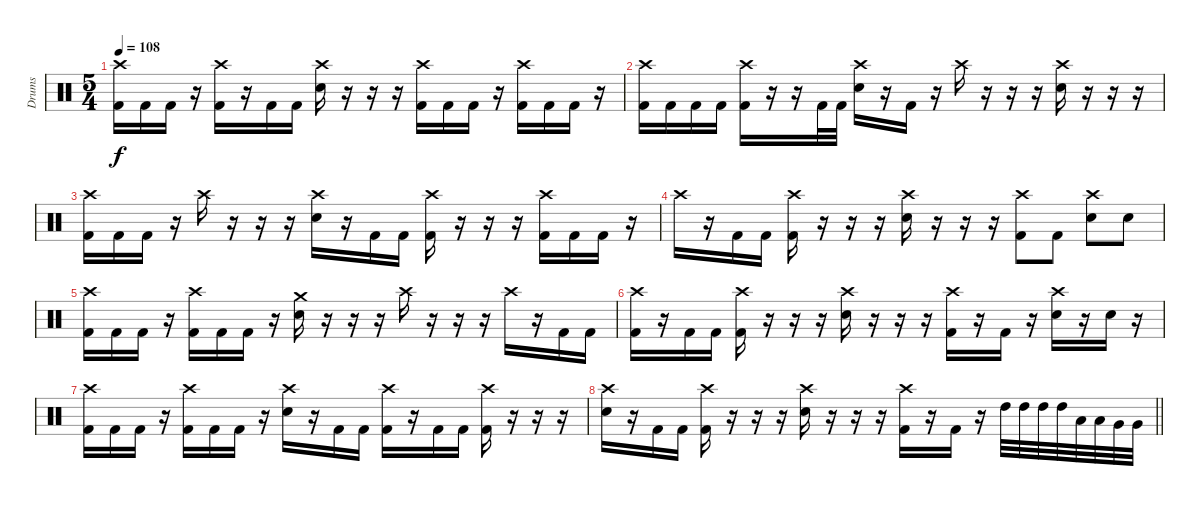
\track ("Drums" "Drums") {instrument percussion}
\staff
\articulation defaults
\ts (5 4)
\section ("" "")
\tempo 108
\clef neutral
\ks c
("Crash high (hit)" "Kick (hit) 2").16{dy f} "Kick (hit) 2".16 "Kick (hit) 2".16 r.16 ("Crash high (hit)" "Kick (hit) 2").16 r.16 "Kick (hit) 2".16 "Kick (hit) 2".16 ("Crash high (hit)" "Electric Snare (hit)").16 r.16 r.16 r.16 ("Crash high (hit)" "Kick (hit) 2").16 "Kick (hit) 2".16 "Kick (hit) 2".16 r.16 ("Crash high (hit)" "Kick (hit) 2").16 "Kick (hit) 2".16 "Kick (hit) 2".16 r.16 |
("Crash high (hit)" "Kick (hit) 2").16 "Kick (hit) 2".16 "Kick (hit) 2".16 "Kick (hit) 2".16 ("Crash high (hit)" "Kick (hit) 2").16 r.16 r.16 "Kick (hit) 2".32 "Kick (hit) 2".32 ("Crash high (hit)" "Electric Snare (hit)").16 r.16 "Kick (hit) 2".16 r.16 "Crash high (hit)".16 r.16 r.16 r.16 ("Crash high (hit)" "Electric Snare (hit)").16 r.16 r.16 r.16 |
("Crash high (hit)" "Kick (hit) 2").16 "Kick (hit) 2".16 "Kick (hit) 2".16 r.16 "Crash high (hit)".16 r.16 r.16 r.16 ("Crash high (hit)" "Electric Snare (hit)").16 r.16 "Kick (hit) 2".16 "Kick (hit) 2".16 ("Crash high (hit)" "Kick (hit) 2").16 r.16 r.16 r.16 ("Crash high (hit)" "Kick (hit) 2").16 "Kick (hit) 2".16 "Kick (hit) 2".16 r.16 |
"Crash high (hit)".16 r.16 "Kick (hit) 2".16 "Kick (hit) 2".16 ("Crash high (hit)" "Kick (hit) 2").16 r.16 r.16 r.16 ("Crash high (hit)" "Electric Snare (hit)").16 r.16 r.16 r.16 ("Crash high (hit)" "Kick (hit) 2").8 "Kick (hit) 2".8 ("Crash high (hit)" "Electric Snare (hit)").8 "Electric Snare (hit)".8 |
("Crash high (hit)" "Kick (hit) 2").16 "Kick (hit) 2".16 "Kick (hit) 2".16 r.16 ("Crash high (hit)" "Kick (hit) 2").16 "Kick (hit) 2".16 "Kick (hit) 2".16 r.16 ("Crash medium (hit)" "Electric Snare (hit)").16 r.16 r.16 r.16 "Crash high (hit)".16 r.16 r.16 r.16 "Crash high (hit)".16 r.16 "Kick (hit) 2".16 "Kick (hit) 2".16 |
("Crash high (hit)" "Kick (hit) 2").16 r.16 "Kick (hit) 2".16 "Kick (hit) 2".16 ("Crash high (hit)" "Kick (hit) 2").16 r.16 r.16 r.16 ("Crash high (hit)" "Electric Snare (hit)").16 r.16 r.16 r.16 ("Crash high (hit)" "Kick (hit) 2").16 r.16 "Kick (hit) 2".16 r.16 ("Crash high (hit)" "Electric Snare (hit)").16 r.16 "Electric Snare (hit)".16 r.16 |
("Crash high (hit)" "Kick (hit) 2").16 "Kick (hit) 2".16 "Kick (hit) 2".16 r.16 ("Crash high (hit)" "Kick (hit) 2").16 "Kick (hit) 2".16 "Kick (hit) 2".16 r.16 ("Crash high (hit)" "Electric Snare (hit)").16 r.16 "Kick (hit) 2".16 "Kick (hit) 2".16 ("Crash high (hit)" "Kick (hit) 2").16 r.16 "Kick (hit) 2".16 "Kick (hit) 2".16 ("Crash high (hit)" "Kick (hit) 2").16 r.16 r.16 r.16 |
\barLineRight lightlight
("Crash high (hit)" "Electric Snare (hit)").16 r.16 "Kick (hit) 2".16 "Kick (hit) 2".16 ("Crash high (hit)" "Kick (hit) 2").16 r.16 r.16 r.16 ("Crash high (hit)" "Electric Snare (hit)").16 r.16 r.16 r.16 ("Crash high (hit)" "Kick (hit) 2").16 r.16 "Kick (hit) 2".16 r.16 "High Tom (hit)".32 "High Tom (hit)".32 "High Tom (hit)".32 "High Tom (hit)".32 "Low Tom (hit)".32 "Low Tom (hit)".32 "Very Low Tom (hit)".32 "Very Low Tom (hit)".32
